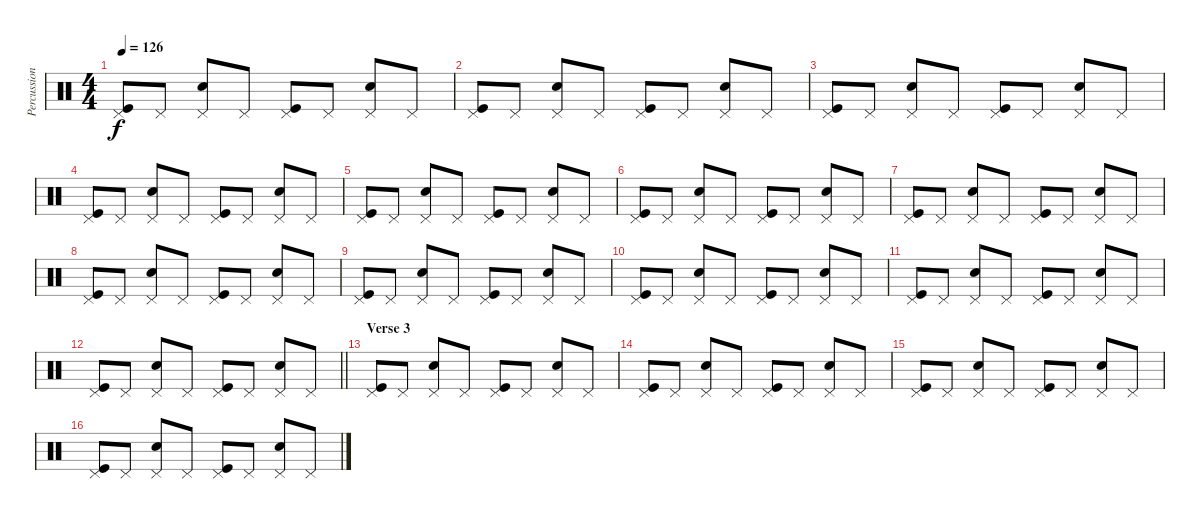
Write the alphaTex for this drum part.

\track ("Percussion" "Percussion") {instrument percussion}
\staff {score}
\articulation defaults
\ts (4 4)
\tempo 126
\clef neutral
\ks c
("Pedal Hi-Hat (hit)" "Kick (hit)").8{dy f} "Pedal Hi-Hat (hit)".8 ("Pedal Hi-Hat (hit)" "Snare (hit) 2").8 "Pedal Hi-Hat (hit)".8 ("Pedal Hi-Hat (hit)" "Kick (hit)").8 "Pedal Hi-Hat (hit)".8 ("Pedal Hi-Hat (hit)" "Snare (hit) 2").8 "Pedal Hi-Hat (hit)".8 |
("Pedal Hi-Hat (hit)" "Kick (hit)").8 "Pedal Hi-Hat (hit)".8 ("Pedal Hi-Hat (hit)" "Snare (hit) 2").8 "Pedal Hi-Hat (hit)".8 ("Pedal Hi-Hat (hit)" "Kick (hit)").8 "Pedal Hi-Hat (hit)".8 ("Pedal Hi-Hat (hit)" "Snare (hit) 2").8 "Pedal Hi-Hat (hit)".8 |
("Pedal Hi-Hat (hit)" "Kick (hit)").8 "Pedal Hi-Hat (hit)".8 ("Pedal Hi-Hat (hit)" "Snare (hit) 2").8 "Pedal Hi-Hat (hit)".8 ("Pedal Hi-Hat (hit)" "Kick (hit)").8 "Pedal Hi-Hat (hit)".8 ("Pedal Hi-Hat (hit)" "Snare (hit) 2").8 "Pedal Hi-Hat (hit)".8 |
("Pedal Hi-Hat (hit)" "Kick (hit)").8 "Pedal Hi-Hat (hit)".8 ("Pedal Hi-Hat (hit)" "Snare (hit) 2").8 "Pedal Hi-Hat (hit)".8 ("Pedal Hi-Hat (hit)" "Kick (hit)").8 "Pedal Hi-Hat (hit)".8 ("Pedal Hi-Hat (hit)" "Snare (hit) 2").8 "Pedal Hi-Hat (hit)".8 |
("Pedal Hi-Hat (hit)" "Kick (hit)").8 "Pedal Hi-Hat (hit)".8 ("Pedal Hi-Hat (hit)" "Snare (hit) 2").8 "Pedal Hi-Hat (hit)".8 ("Pedal Hi-Hat (hit)" "Kick (hit)").8 "Pedal Hi-Hat (hit)".8 ("Pedal Hi-Hat (hit)" "Snare (hit) 2").8 "Pedal Hi-Hat (hit)".8 |
("Pedal Hi-Hat (hit)" "Kick (hit)").8 "Pedal Hi-Hat (hit)".8 ("Pedal Hi-Hat (hit)" "Snare (hit) 2").8 "Pedal Hi-Hat (hit)".8 ("Pedal Hi-Hat (hit)" "Kick (hit)").8 "Pedal Hi-Hat (hit)".8 ("Pedal Hi-Hat (hit)" "Snare (hit) 2").8 "Pedal Hi-Hat (hit)".8 |
("Pedal Hi-Hat (hit)" "Kick (hit)").8 "Pedal Hi-Hat (hit)".8 ("Pedal Hi-Hat (hit)" "Snare (hit) 2").8 "Pedal Hi-Hat (hit)".8 ("Pedal Hi-Hat (hit)" "Kick (hit)").8 "Pedal Hi-Hat (hit)".8 ("Pedal Hi-Hat (hit)" "Snare (hit) 2").8 "Pedal Hi-Hat (hit)".8 |
("Pedal Hi-Hat (hit)" "Kick (hit)").8 "Pedal Hi-Hat (hit)".8 ("Pedal Hi-Hat (hit)" "Snare (hit) 2").8 "Pedal Hi-Hat (hit)".8 ("Pedal Hi-Hat (hit)" "Kick (hit)").8 "Pedal Hi-Hat (hit)".8 ("Pedal Hi-Hat (hit)" "Snare (hit) 2").8 "Pedal Hi-Hat (hit)".8 |
("Pedal Hi-Hat (hit)" "Kick (hit)").8 "Pedal Hi-Hat (hit)".8 ("Pedal Hi-Hat (hit)" "Snare (hit) 2").8 "Pedal Hi-Hat (hit)".8 ("Pedal Hi-Hat (hit)" "Kick (hit)").8 "Pedal Hi-Hat (hit)".8 ("Pedal Hi-Hat (hit)" "Snare (hit) 2").8 "Pedal Hi-Hat (hit)".8 |
("Pedal Hi-Hat (hit)" "Kick (hit)").8 "Pedal Hi-Hat (hit)".8 ("Pedal Hi-Hat (hit)" "Snare (hit) 2").8 "Pedal Hi-Hat (hit)".8 ("Pedal Hi-Hat (hit)" "Kick (hit)").8 "Pedal Hi-Hat (hit)".8 ("Pedal Hi-Hat (hit)" "Snare (hit) 2").8 "Pedal Hi-Hat (hit)".8 |
("Pedal Hi-Hat (hit)" "Kick (hit)").8 "Pedal Hi-Hat (hit)".8 ("Pedal Hi-Hat (hit)" "Snare (hit) 2").8 "Pedal Hi-Hat (hit)".8 ("Pedal Hi-Hat (hit)" "Kick (hit)").8 "Pedal Hi-Hat (hit)".8 ("Pedal Hi-Hat (hit)" "Snare (hit) 2").8 "Pedal Hi-Hat (hit)".8 |
\barLineRight lightlight
("Pedal Hi-Hat (hit)" "Kick (hit)").8 "Pedal Hi-Hat (hit)".8 ("Pedal Hi-Hat (hit)" "Snare (hit) 2").8 "Pedal Hi-Hat (hit)".8 ("Pedal Hi-Hat (hit)" "Kick (hit)").8 "Pedal Hi-Hat (hit)".8 ("Pedal Hi-Hat (hit)" "Snare (hit) 2").8 "Pedal Hi-Hat (hit)".8 |
\section ("" "Verse 3")
("Pedal Hi-Hat (hit)" "Kick (hit)").8 "Pedal Hi-Hat (hit)".8 ("Pedal Hi-Hat (hit)" "Snare (hit) 2").8 "Pedal Hi-Hat (hit)".8 ("Pedal Hi-Hat (hit)" "Kick (hit)").8 "Pedal Hi-Hat (hit)".8 ("Pedal Hi-Hat (hit)" "Snare (hit) 2").8 "Pedal Hi-Hat (hit)".8 |
("Pedal Hi-Hat (hit)" "Kick (hit)").8 "Pedal Hi-Hat (hit)".8 ("Pedal Hi-Hat (hit)" "Snare (hit) 2").8 "Pedal Hi-Hat (hit)".8 ("Pedal Hi-Hat (hit)" "Kick (hit)").8 "Pedal Hi-Hat (hit)".8 ("Pedal Hi-Hat (hit)" "Snare (hit) 2").8 "Pedal Hi-Hat (hit)".8 |
("Pedal Hi-Hat (hit)" "Kick (hit)").8 "Pedal Hi-Hat (hit)".8 ("Pedal Hi-Hat (hit)" "Snare (hit) 2").8 "Pedal Hi-Hat (hit)".8 ("Pedal Hi-Hat (hit)" "Kick (hit)").8 "Pedal Hi-Hat (hit)".8 ("Pedal Hi-Hat (hit)" "Snare (hit) 2").8 "Pedal Hi-Hat (hit)".8 |
("Pedal Hi-Hat (hit)" "Kick (hit)").8 "Pedal Hi-Hat (hit)".8 ("Pedal Hi-Hat (hit)" "Snare (hit) 2").8 "Pedal Hi-Hat (hit)".8 ("Pedal Hi-Hat (hit)" "Kick (hit)").8 "Pedal Hi-Hat (hit)".8 ("Pedal Hi-Hat (hit)" "Snare (hit) 2").8 "Pedal Hi-Hat (hit)".8
